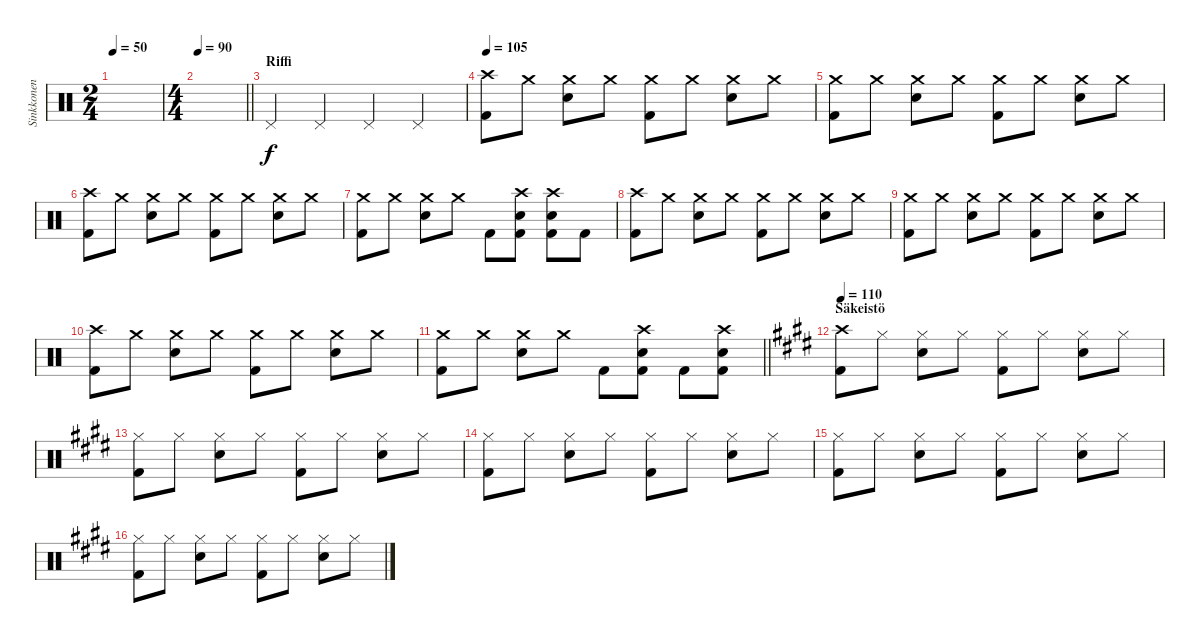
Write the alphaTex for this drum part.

\track ("Sinkkonen" "Sinkkonen") {instrument percussion}
\staff {score}
\articulation defaults
\ts (2 4)
\tempo 50
\clef neutral
\ks c
|
\ts (4 4)
\tempo 90
\barLineRight lightlight
|
\section ("" "Riffi")
"Pedal Hi-Hat (hit)".4{volume 13} "Pedal Hi-Hat (hit)".4 "Pedal Hi-Hat (hit)".4 "Pedal Hi-Hat (hit)".4 |
\tempo 105
("Crash high (hit)" "Kick (hit) 2").8 "Crash medium (hit)".8 ("Crash medium (hit)" "Snare (hit) 2").8 "Crash medium (hit)".8 ("Crash medium (hit)" "Kick (hit) 2").8 "Crash medium (hit)".8 ("Crash medium (hit)" "Snare (hit) 2").8 "Crash medium (hit)".8 |
("Crash medium (hit)" "Kick (hit) 2").8 "Crash medium (hit)".8 ("Crash medium (hit)" "Snare (hit) 2").8 "Crash medium (hit)".8 ("Crash medium (hit)" "Kick (hit) 2").8 "Crash medium (hit)".8 ("Crash medium (hit)" "Snare (hit) 2").8 "Crash medium (hit)".8 |
("Crash high (hit)" "Kick (hit) 2").8 "Crash medium (hit)".8 ("Crash medium (hit)" "Snare (hit) 2").8 "Crash medium (hit)".8 ("Crash medium (hit)" "Kick (hit) 2").8 "Crash medium (hit)".8 ("Crash medium (hit)" "Snare (hit) 2").8 "Crash medium (hit)".8 |
("Crash medium (hit)" "Kick (hit) 2").8 "Crash medium (hit)".8 ("Crash medium (hit)" "Snare (hit) 2").8 "Crash medium (hit)".8 "Kick (hit) 2".8 ("Crash high (hit)" "Snare (hit) 2" "Kick (hit) 2").8 ("Crash high (hit)" "Snare (hit) 2" "Kick (hit) 2").8 "Kick (hit) 2".8 |
("Crash high (hit)" "Kick (hit) 2").8 "Crash medium (hit)".8 ("Crash medium (hit)" "Snare (hit) 2").8 "Crash medium (hit)".8 ("Crash medium (hit)" "Kick (hit) 2").8 "Crash medium (hit)".8 ("Crash medium (hit)" "Snare (hit) 2").8 "Crash medium (hit)".8 |
("Crash medium (hit)" "Kick (hit) 2").8 "Crash medium (hit)".8 ("Crash medium (hit)" "Snare (hit) 2").8 "Crash medium (hit)".8 ("Crash medium (hit)" "Kick (hit) 2").8 "Crash medium (hit)".8 ("Crash medium (hit)" "Snare (hit) 2").8 "Crash medium (hit)".8 |
("Crash high (hit)" "Kick (hit) 2").8 "Crash medium (hit)".8 ("Crash medium (hit)" "Snare (hit) 2").8 "Crash medium (hit)".8 ("Crash medium (hit)" "Kick (hit) 2").8 "Crash medium (hit)".8 ("Crash medium (hit)" "Snare (hit) 2").8 "Crash medium (hit)".8 |
\barLineRight lightlight
("Crash medium (hit)" "Kick (hit) 2").8 "Crash medium (hit)".8 ("Crash medium (hit)" "Snare (hit) 2").8 "Crash medium (hit)".8 "Kick (hit) 2".8 ("Crash high (hit)" "Snare (hit) 2" "Kick (hit) 2").8 "Kick (hit) 2".8 ("Crash high (hit)" "Snare (hit) 2" "Kick (hit) 2").8 |
\section ("" "Säkeistö")
\tempo 110
\ks c#minor
("Crash high (hit)" "Kick (hit) 2").8 "Hi-Hat (closed)".8 ("Hi-Hat (closed)" "Snare (hit) 2").8 "Hi-Hat (closed)".8 ("Hi-Hat (closed)" "Kick (hit) 2").8 "Hi-Hat (closed)".8 ("Hi-Hat (closed)" "Snare (hit) 2").8 "Hi-Hat (closed)".8 |
("Hi-Hat (closed)" "Kick (hit) 2").8 "Hi-Hat (closed)".8 ("Hi-Hat (closed)" "Snare (hit) 2").8 "Hi-Hat (closed)".8 ("Hi-Hat (closed)" "Kick (hit) 2").8 "Hi-Hat (closed)".8 ("Hi-Hat (closed)" "Snare (hit) 2").8 "Hi-Hat (closed)".8 |
("Hi-Hat (closed)" "Kick (hit) 2").8 "Hi-Hat (closed)".8 ("Hi-Hat (closed)" "Snare (hit) 2").8 "Hi-Hat (closed)".8 ("Hi-Hat (closed)" "Kick (hit) 2").8 "Hi-Hat (closed)".8 ("Hi-Hat (closed)" "Snare (hit) 2").8 "Hi-Hat (closed)".8 |
("Hi-Hat (closed)" "Kick (hit) 2").8 "Hi-Hat (closed)".8 ("Hi-Hat (closed)" "Snare (hit) 2").8 "Hi-Hat (closed)".8 ("Hi-Hat (closed)" "Kick (hit) 2").8 "Hi-Hat (closed)".8 ("Hi-Hat (closed)" "Snare (hit) 2").8 "Hi-Hat (closed)".8 |
("Hi-Hat (closed)" "Kick (hit) 2").8 "Hi-Hat (closed)".8 ("Hi-Hat (closed)" "Snare (hit) 2").8 "Hi-Hat (closed)".8 ("Hi-Hat (closed)" "Kick (hit) 2").8 "Hi-Hat (closed)".8 ("Hi-Hat (closed)" "Snare (hit) 2").8 "Hi-Hat (closed)".8
